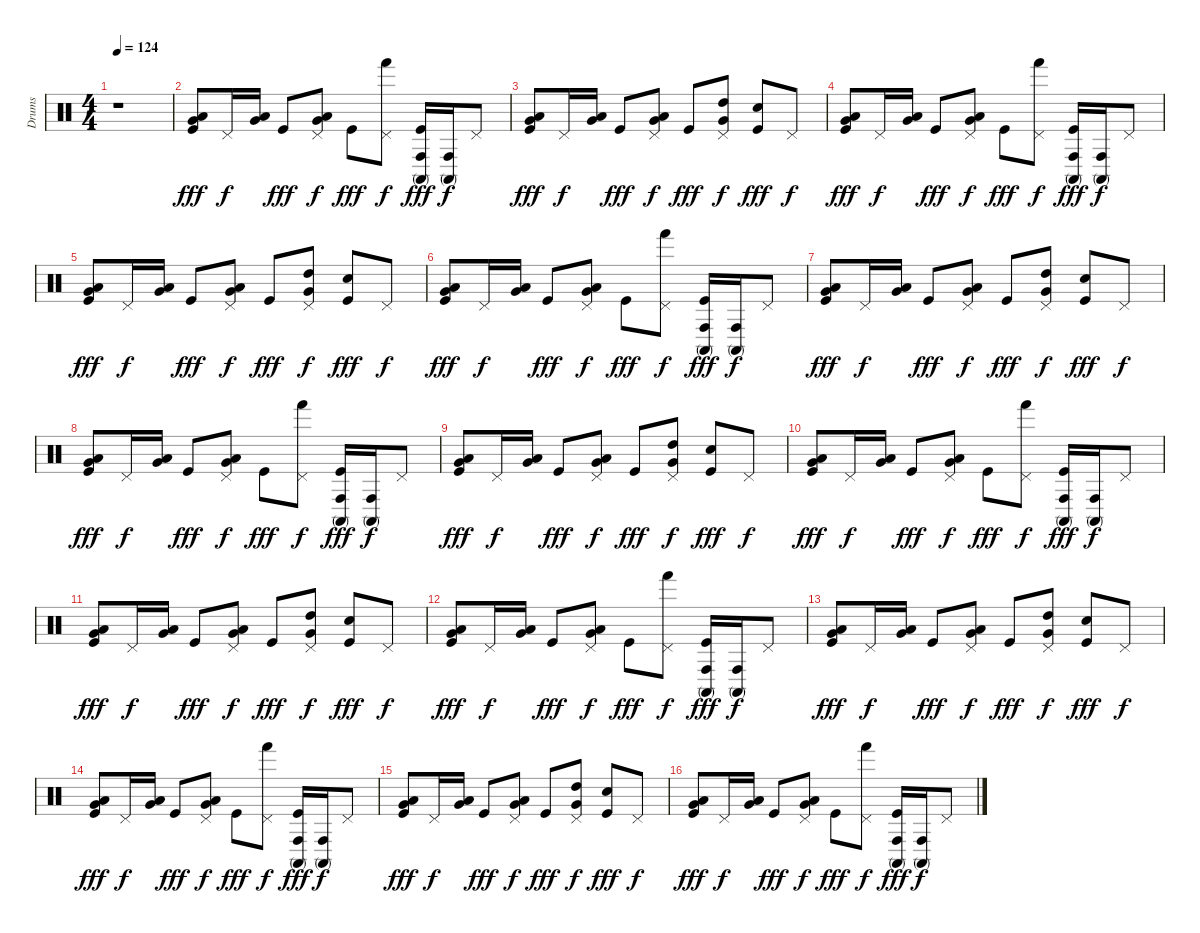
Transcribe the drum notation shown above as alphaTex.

\track ("Drums" "Drums") {instrument percussion}
\staff {score}
\articulation defaults
\ts (4 4)
\tempo 124
\clef neutral
\ks c
r.1{dy fff} |
("Kick (hit)" "Very Low Tom (hit)" "Low Tom (hit)").8 "Pedal Hi-Hat (hit)".16{dy f} ("Very Low Tom (hit)" "Low Tom (hit)").16 "Kick (hit)".8{dy fff} ("Pedal Hi-Hat (hit)" "Very Low Tom (hit)" "Low Tom (hit)").8{dy f} "Kick (hit)".8{dy fff} ("Pedal Hi-Hat (hit)" "Hand (hit)").8{dy f} ("Kick (hit)" "Conga high (mute)" "Conga high (hit)").16{dy fff} ("Conga high (mute)" "Conga high (hit)").16{dy f} "Pedal Hi-Hat (hit)".8 |
("Kick (hit)" "Very Low Tom (hit)" "Low Tom (hit)").8{dy fff} "Pedal Hi-Hat (hit)".16{dy f} ("Very Low Tom (hit)" "Low Tom (hit)").16 "Kick (hit)".8{dy fff} ("Pedal Hi-Hat (hit)" "Very Low Tom (hit)" "Low Tom (hit)").8{dy f} "Kick (hit)".8{dy fff} ("Pedal Hi-Hat (hit)" "High Tom (hit)" "Very Low Tom (hit)").8{dy f} ("Kick (hit)" "Electric Snare (hit)").8{dy fff} "Pedal Hi-Hat (hit)".8{dy f} |
("Kick (hit)" "Very Low Tom (hit)" "Low Tom (hit)").8{dy fff} "Pedal Hi-Hat (hit)".16{dy f} ("Very Low Tom (hit)" "Low Tom (hit)").16 "Kick (hit)".8{dy fff} ("Pedal Hi-Hat (hit)" "Very Low Tom (hit)" "Low Tom (hit)").8{dy f} "Kick (hit)".8{dy fff} ("Pedal Hi-Hat (hit)" "Hand (hit)").8{dy f} ("Kick (hit)" "Conga high (mute)" "Conga high (hit)").16{dy fff} ("Conga high (mute)" "Conga high (hit)").16{dy f} "Pedal Hi-Hat (hit)".8 |
("Kick (hit)" "Very Low Tom (hit)" "Low Tom (hit)").8{dy fff} "Pedal Hi-Hat (hit)".16{dy f} ("Very Low Tom (hit)" "Low Tom (hit)").16 "Kick (hit)".8{dy fff} ("Pedal Hi-Hat (hit)" "Very Low Tom (hit)" "Low Tom (hit)").8{dy f} "Kick (hit)".8{dy fff} ("Pedal Hi-Hat (hit)" "High Tom (hit)" "Very Low Tom (hit)").8{dy f} ("Kick (hit)" "Electric Snare (hit)").8{dy fff} "Pedal Hi-Hat (hit)".8{dy f} |
("Kick (hit)" "Very Low Tom (hit)" "Low Tom (hit)").8{dy fff} "Pedal Hi-Hat (hit)".16{dy f} ("Very Low Tom (hit)" "Low Tom (hit)").16 "Kick (hit)".8{dy fff} ("Pedal Hi-Hat (hit)" "Very Low Tom (hit)" "Low Tom (hit)").8{dy f} "Kick (hit)".8{dy fff} ("Pedal Hi-Hat (hit)" "Hand (hit)").8{dy f} ("Kick (hit)" "Conga high (mute)" "Conga high (hit)").16{dy fff} ("Conga high (mute)" "Conga high (hit)").16{dy f} "Pedal Hi-Hat (hit)".8 |
("Kick (hit)" "Very Low Tom (hit)" "Low Tom (hit)").8{dy fff} "Pedal Hi-Hat (hit)".16{dy f} ("Very Low Tom (hit)" "Low Tom (hit)").16 "Kick (hit)".8{dy fff} ("Pedal Hi-Hat (hit)" "Very Low Tom (hit)" "Low Tom (hit)").8{dy f} "Kick (hit)".8{dy fff} ("Pedal Hi-Hat (hit)" "High Tom (hit)" "Very Low Tom (hit)").8{dy f} ("Kick (hit)" "Electric Snare (hit)").8{dy fff} "Pedal Hi-Hat (hit)".8{dy f} |
("Kick (hit)" "Very Low Tom (hit)" "Low Tom (hit)").8{dy fff} "Pedal Hi-Hat (hit)".16{dy f} ("Very Low Tom (hit)" "Low Tom (hit)").16 "Kick (hit)".8{dy fff} ("Pedal Hi-Hat (hit)" "Very Low Tom (hit)" "Low Tom (hit)").8{dy f} "Kick (hit)".8{dy fff} ("Pedal Hi-Hat (hit)" "Hand (hit)").8{dy f} ("Kick (hit)" "Conga high (mute)" "Conga high (hit)").16{dy fff} ("Conga high (mute)" "Conga high (hit)").16{dy f} "Pedal Hi-Hat (hit)".8 |
("Kick (hit)" "Very Low Tom (hit)" "Low Tom (hit)").8{dy fff} "Pedal Hi-Hat (hit)".16{dy f} ("Very Low Tom (hit)" "Low Tom (hit)").16 "Kick (hit)".8{dy fff} ("Pedal Hi-Hat (hit)" "Very Low Tom (hit)" "Low Tom (hit)").8{dy f} "Kick (hit)".8{dy fff} ("Pedal Hi-Hat (hit)" "High Tom (hit)" "Very Low Tom (hit)").8{dy f} ("Kick (hit)" "Electric Snare (hit)").8{dy fff} "Pedal Hi-Hat (hit)".8{dy f} |
("Kick (hit)" "Very Low Tom (hit)" "Low Tom (hit)").8{dy fff} "Pedal Hi-Hat (hit)".16{dy f} ("Very Low Tom (hit)" "Low Tom (hit)").16 "Kick (hit)".8{dy fff} ("Pedal Hi-Hat (hit)" "Very Low Tom (hit)" "Low Tom (hit)").8{dy f} "Kick (hit)".8{dy fff} ("Pedal Hi-Hat (hit)" "Hand (hit)").8{dy f} ("Kick (hit)" "Conga high (mute)" "Conga high (hit)").16{dy fff} ("Conga high (mute)" "Conga high (hit)").16{dy f} "Pedal Hi-Hat (hit)".8 |
("Kick (hit)" "Very Low Tom (hit)" "Low Tom (hit)").8{dy fff} "Pedal Hi-Hat (hit)".16{dy f} ("Very Low Tom (hit)" "Low Tom (hit)").16 "Kick (hit)".8{dy fff} ("Pedal Hi-Hat (hit)" "Very Low Tom (hit)" "Low Tom (hit)").8{dy f} "Kick (hit)".8{dy fff} ("Pedal Hi-Hat (hit)" "High Tom (hit)" "Very Low Tom (hit)").8{dy f} ("Kick (hit)" "Electric Snare (hit)").8{dy fff} "Pedal Hi-Hat (hit)".8{dy f} |
("Kick (hit)" "Very Low Tom (hit)" "Low Tom (hit)").8{dy fff} "Pedal Hi-Hat (hit)".16{dy f} ("Very Low Tom (hit)" "Low Tom (hit)").16 "Kick (hit)".8{dy fff} ("Pedal Hi-Hat (hit)" "Very Low Tom (hit)" "Low Tom (hit)").8{dy f} "Kick (hit)".8{dy fff} ("Pedal Hi-Hat (hit)" "Hand (hit)").8{dy f} ("Kick (hit)" "Conga high (mute)" "Conga high (hit)").16{dy fff} ("Conga high (mute)" "Conga high (hit)").16{dy f} "Pedal Hi-Hat (hit)".8 |
("Kick (hit)" "Very Low Tom (hit)" "Low Tom (hit)").8{dy fff} "Pedal Hi-Hat (hit)".16{dy f} ("Very Low Tom (hit)" "Low Tom (hit)").16 "Kick (hit)".8{dy fff} ("Pedal Hi-Hat (hit)" "Very Low Tom (hit)" "Low Tom (hit)").8{dy f} "Kick (hit)".8{dy fff} ("Pedal Hi-Hat (hit)" "High Tom (hit)" "Very Low Tom (hit)").8{dy f} ("Kick (hit)" "Electric Snare (hit)").8{dy fff} "Pedal Hi-Hat (hit)".8{dy f} |
("Kick (hit)" "Very Low Tom (hit)" "Low Tom (hit)").8{dy fff} "Pedal Hi-Hat (hit)".16{dy f} ("Very Low Tom (hit)" "Low Tom (hit)").16 "Kick (hit)".8{dy fff} ("Pedal Hi-Hat (hit)" "Very Low Tom (hit)" "Low Tom (hit)").8{dy f} "Kick (hit)".8{dy fff} ("Pedal Hi-Hat (hit)" "Hand (hit)").8{dy f} ("Kick (hit)" "Conga high (mute)" "Conga high (hit)").16{dy fff} ("Conga high (mute)" "Conga high (hit)").16{dy f} "Pedal Hi-Hat (hit)".8 |
("Kick (hit)" "Very Low Tom (hit)" "Low Tom (hit)").8{dy fff} "Pedal Hi-Hat (hit)".16{dy f} ("Very Low Tom (hit)" "Low Tom (hit)").16 "Kick (hit)".8{dy fff} ("Pedal Hi-Hat (hit)" "Very Low Tom (hit)" "Low Tom (hit)").8{dy f} "Kick (hit)".8{dy fff} ("Pedal Hi-Hat (hit)" "High Tom (hit)" "Very Low Tom (hit)").8{dy f} ("Kick (hit)" "Electric Snare (hit)").8{dy fff} "Pedal Hi-Hat (hit)".8{dy f} |
("Kick (hit)" "Very Low Tom (hit)" "Low Tom (hit)").8{dy fff} "Pedal Hi-Hat (hit)".16{dy f} ("Very Low Tom (hit)" "Low Tom (hit)").16 "Kick (hit)".8{dy fff} ("Pedal Hi-Hat (hit)" "Very Low Tom (hit)" "Low Tom (hit)").8{dy f} "Kick (hit)".8{dy fff} ("Pedal Hi-Hat (hit)" "Hand (hit)").8{dy f} ("Kick (hit)" "Conga high (mute)" "Conga high (hit)").16{dy fff} ("Conga high (mute)" "Conga high (hit)").16{dy f} "Pedal Hi-Hat (hit)".8
